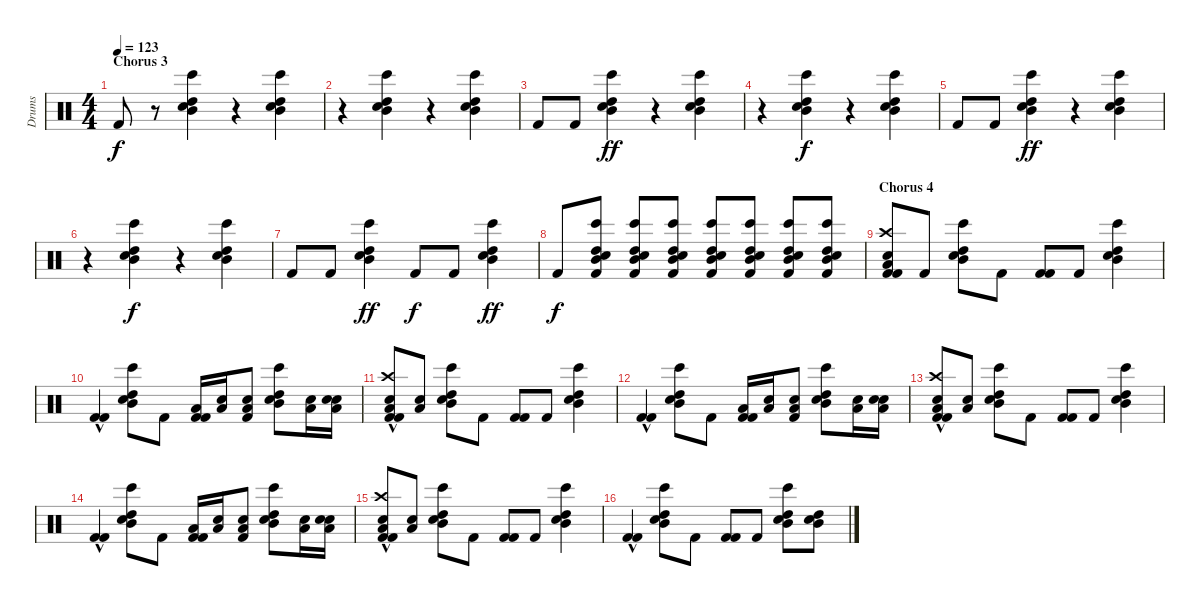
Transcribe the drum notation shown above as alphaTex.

\track ("Drums" "Drums") {instrument percussion}
\staff {score}
\articulation defaults
\ts (4 4)
\section ("" "Chorus 3")
\tempo 123
\clef neutral
\ks c "Kick (hit) 2".8{dy f}
r.8 ("Bongo High (hit)" "High Tom (hit)" "Mid Tom (hit)" "Snare (hit) 2").4 r.4 ("Bongo High (hit)" "High Tom (hit)" "Mid Tom (hit)" "Snare (hit) 2").4 |
r.4 ("Bongo High (hit)" "High Tom (hit)" "Mid Tom (hit)" "Snare (hit) 2").4 r.4 ("Bongo High (hit)" "High Tom (hit)" "Mid Tom (hit)" "Snare (hit) 2").4 |
"Kick (hit) 2".8 "Kick (hit) 2".8 ("Bongo High (hit)" "High Tom (hit)" "Mid Tom (hit)" "Snare (hit) 2").4{dy ff} r.4 ("Bongo High (hit)" "High Tom (hit)" "Mid Tom (hit)" "Snare (hit) 2").4 |
r.4 ("Bongo High (hit)" "High Tom (hit)" "Mid Tom (hit)" "Snare (hit) 2").4{dy f} r.4 ("Bongo High (hit)" "High Tom (hit)" "Mid Tom (hit)" "Snare (hit) 2").4 |
"Kick (hit) 2".8 "Kick (hit) 2".8 ("Bongo High (hit)" "High Tom (hit)" "Mid Tom (hit)" "Snare (hit) 2").4{dy ff} r.4 ("Bongo High (hit)" "High Tom (hit)" "Mid Tom (hit)" "Snare (hit) 2").4 |
r.4 ("Bongo High (hit)" "High Tom (hit)" "Mid Tom (hit)" "Snare (hit) 2").4{dy f} r.4 ("Bongo High (hit)" "High Tom (hit)" "Mid Tom (hit)" "Snare (hit) 2").4 |
"Kick (hit) 2".8 "Kick (hit) 2".8 ("Bongo High (hit)" "High Tom (hit)" "Mid Tom (hit)" "Snare (hit) 2").4{dy ff} "Kick (hit) 2".8{dy f} "Kick (hit) 2".8 ("Bongo High (hit)" "High Tom (hit)" "Mid Tom (hit)" "Snare (hit) 2").4{dy ff} |
"Kick (hit) 2".8{dy f} ("Bongo High (hit)" "High Tom (hit)" "Mid Tom (hit)" "Snare (hit) 2" "Kick (hit) 2").8 ("Bongo High (hit)" "High Tom (hit)" "Mid Tom (hit)" "Snare (hit) 2" "Kick (hit) 2").8 ("Bongo High (hit)" "High Tom (hit)" "Mid Tom (hit)" "Snare (hit) 2" "Kick (hit) 2").8 ("Bongo High (hit)" "High Tom (hit)" "Mid Tom (hit)" "Snare (hit) 2" "Kick (hit) 2").8 ("Bongo High (hit)" "High Tom (hit)" "Mid Tom (hit)" "Snare (hit) 2" "Kick (hit) 2").8 ("Bongo High (hit)" "High Tom (hit)" "Mid Tom (hit)" "Snare (hit) 2" "Kick (hit) 2").8 ("Bongo High (hit)" "High Tom (hit)" "Mid Tom (hit)" "Snare (hit) 2" "Kick (hit) 2").8 |
\section ("" "Chorus 4")
("Crash high (hit)" "Snare (hit) 2" "Low Floor Tom (hit)" "Kick (hit) 2" "Kick (hit) 2").8 "Kick (hit) 2".8 ("Bongo High (hit)" "High Tom (hit)" "Mid Tom (hit)" "Snare (hit) 2").8 "Kick (hit) 2".8 ("Kick (hit) 2" "Kick (hit) 2").8 "Kick (hit) 2".8 ("Bongo High (hit)" "High Tom (hit)" "Mid Tom (hit)" "Snare (hit) 2").4 |
("Kick (hit) 2"{hac} "Kick (hit) 2"{hac}).4 ("Bongo High (hit)" "High Tom (hit)" "Mid Tom (hit)" "Snare (hit) 2").8 "Kick (hit) 2".8 ("Low Floor Tom (hit)" "Kick (hit) 2" "Kick (hit) 2").16 ("Snare (hit) 2" "Low Floor Tom (hit)").16 ("Snare (hit) 2" "Low Floor Tom (hit)" "Kick (hit) 2").8 ("Bongo High (hit)" "High Tom (hit)" "Mid Tom (hit)" "Snare (hit) 2").8 ("Low Floor Tom (hit)" "Snare (hit) 2").16 ("Snare (hit) 2" "Low Floor Tom (hit)" "Snare (hit) 2").16 |
("Crash high (hit)" "Snare (hit) 2" "Low Floor Tom (hit)" "Kick (hit) 2"{hac} "Kick (hit) 2"{hac}).8 ("Snare (hit) 2" "Low Floor Tom (hit)").8 ("Bongo High (hit)" "High Tom (hit)" "Mid Tom (hit)" "Snare (hit) 2").8 "Kick (hit) 2".8 ("Kick (hit) 2" "Kick (hit) 2").8 "Kick (hit) 2".8 ("Bongo High (hit)" "High Tom (hit)" "Mid Tom (hit)" "Snare (hit) 2").4 |
("Kick (hit) 2"{hac} "Kick (hit) 2"{hac}).4 ("Bongo High (hit)" "High Tom (hit)" "Mid Tom (hit)" "Snare (hit) 2").8 "Kick (hit) 2".8 ("Low Floor Tom (hit)" "Kick (hit) 2" "Kick (hit) 2").16 ("Snare (hit) 2" "Low Floor Tom (hit)").16 ("Snare (hit) 2" "Low Floor Tom (hit)" "Kick (hit) 2").8 ("Bongo High (hit)" "High Tom (hit)" "Mid Tom (hit)" "Snare (hit) 2").8 ("Low Floor Tom (hit)" "Snare (hit) 2").16 ("Snare (hit) 2" "Low Floor Tom (hit)" "Snare (hit) 2").16 |
("Crash high (hit)" "Snare (hit) 2" "Low Floor Tom (hit)" "Kick (hit) 2"{hac} "Kick (hit) 2"{hac}).8 ("Snare (hit) 2" "Low Floor Tom (hit)").8 ("Bongo High (hit)" "High Tom (hit)" "Mid Tom (hit)" "Snare (hit) 2").8 "Kick (hit) 2".8 ("Kick (hit) 2" "Kick (hit) 2").8 "Kick (hit) 2".8 ("Bongo High (hit)" "High Tom (hit)" "Mid Tom (hit)" "Snare (hit) 2").4 |
("Kick (hit) 2"{hac} "Kick (hit) 2"{hac}).4 ("Bongo High (hit)" "High Tom (hit)" "Mid Tom (hit)" "Snare (hit) 2").8 "Kick (hit) 2".8 ("Low Floor Tom (hit)" "Kick (hit) 2" "Kick (hit) 2").16 ("Snare (hit) 2" "Low Floor Tom (hit)").16 ("Snare (hit) 2" "Low Floor Tom (hit)" "Kick (hit) 2").8 ("Bongo High (hit)" "High Tom (hit)" "Mid Tom (hit)" "Snare (hit) 2").8 ("Low Floor Tom (hit)" "Snare (hit) 2").16 ("Snare (hit) 2" "Low Floor Tom (hit)" "Snare (hit) 2").16 |
("Crash high (hit)" "Snare (hit) 2" "Low Floor Tom (hit)" "Kick (hit) 2"{hac} "Kick (hit) 2"{hac}).8 ("Snare (hit) 2" "Low Floor Tom (hit)").8 ("Bongo High (hit)" "High Tom (hit)" "Mid Tom (hit)" "Snare (hit) 2").8 "Kick (hit) 2".8 ("Kick (hit) 2" "Kick (hit) 2").8 "Kick (hit) 2".8 ("Bongo High (hit)" "High Tom (hit)" "Mid Tom (hit)" "Snare (hit) 2").4 |
("Kick (hit) 2"{hac} "Kick (hit) 2"{hac}).4 ("Bongo High (hit)" "High Tom (hit)" "Mid Tom (hit)" "Snare (hit) 2").8 "Kick (hit) 2".8 ("Kick (hit) 2" "Kick (hit) 2").8 "Kick (hit) 2".8 ("Bongo High (hit)" "High Tom (hit)" "Mid Tom (hit)" "Snare (hit) 2").8 ("High Tom (hit)" "Mid Tom (hit)" "Snare (hit) 2").8
